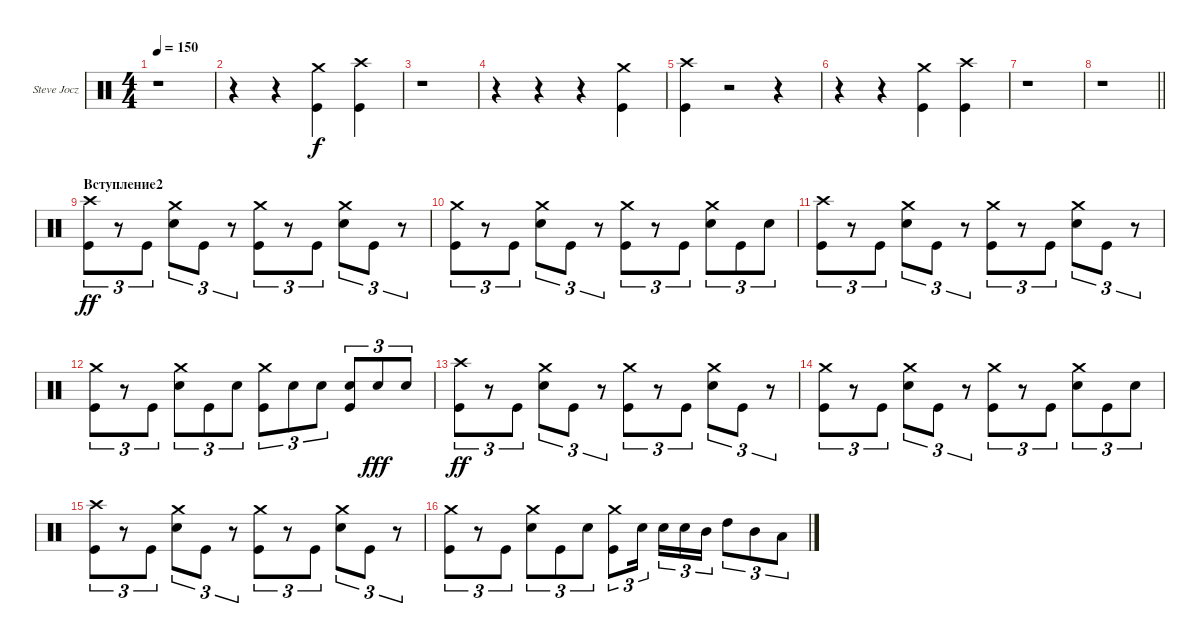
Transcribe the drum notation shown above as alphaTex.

\defaultSystemsLayout 4
\bracketExtendMode groupsimilarinstruments
\firstSystemTrackNameOrientation horizontal
\otherSystemsTrackNameOrientation horizontal
\track ("Steve Jocz " "Steve Jocz") {instrument percussion}
\staff {score}
\articulation defaults
\ts (4 4)
\tempo 150
\clef neutral
\scale
0.333333
\ks c
r.1{dy f} |
\scale
0.333333 r.4 r.4 ("Crash medium (hit)" "Kick (hit)").4 ("Crash high (hit)" "Kick (hit)").4 |
\scale
0.333333 r.1 |
\scale
0.333333 r.4 r.4 r.4 ("Crash medium (hit)" "Kick (hit)").4 |
\scale
0.333333 ("Crash high (hit)" "Kick (hit)").4 r.2 r.4 |
\scale
0.333333 r.4 r.4 ("Crash medium (hit)" "Kick (hit)").4 ("Crash high (hit)" "Kick (hit)").4 |
\scale
0.333333 r.1 |
\scale
0.333333
\barLineRight lightlight
r.1 |
\section ("" "Вступление2")
\scale
0.333333 ("Crash high (hit)" "Kick (hit)").8{tu (3 2) dy ff} r.8{tu (3 2)} "Kick (hit)".8{tu (3 2)} ("Crash medium (hit)" "Snare (hit) 2").8{tu (3 2)} "Kick (hit)".8{tu (3 2)} r.8{tu (3 2)} ("Crash medium (hit)" "Kick (hit)").8{tu (3 2)} r.8{tu (3 2)} "Kick (hit)".8{tu (3 2)} ("Crash medium (hit)" "Snare (hit) 2").8{tu (3 2)} "Kick (hit)".8{tu (3 2)} r.8{tu (3 2)} |
\scale
0.333333 ("Crash medium (hit)" "Kick (hit)").8{tu (3 2)} r.8{tu (3 2)} "Kick (hit)".8{tu (3 2)} ("Crash medium (hit)" "Snare (hit) 2").8{tu (3 2)} "Kick (hit)".8{tu (3 2)} r.8{tu (3 2)} ("Crash medium (hit)" "Kick (hit)").8{tu (3 2)} r.8{tu (3 2)} "Kick (hit)".8{tu (3 2)} ("Crash medium (hit)" "Snare (hit) 2").8{tu (3 2)} "Kick (hit)".8{tu (3 2)} "Snare (hit) 2".8{tu (3 2)} |
\scale
0.333333 ("Crash high (hit)" "Kick (hit)").8{tu (3 2)} r.8{tu (3 2)} "Kick (hit)".8{tu (3 2)} ("Crash medium (hit)" "Snare (hit) 2").8{tu (3 2)} "Kick (hit)".8{tu (3 2)} r.8{tu (3 2)} ("Crash medium (hit)" "Kick (hit)").8{tu (3 2)} r.8{tu (3 2)} "Kick (hit)".8{tu (3 2)} ("Crash medium (hit)" "Snare (hit) 2").8{tu (3 2)} "Kick (hit)".8{tu (3 2)} r.8{tu (3 2)} |
\scale
0.333333 ("Crash medium (hit)" "Kick (hit)").8{tu (3 2)} r.8{tu (3 2)} "Kick (hit)".8{tu (3 2)} ("Crash medium (hit)" "Snare (hit) 2").8{tu (3 2)} "Kick (hit)".8{tu (3 2)} "Snare (hit) 2".8{tu (3 2)} ("Crash medium (hit)" "Kick (hit)").8{tu (3 2)} "Snare (hit) 2".8{tu (3 2)} "Snare (hit) 2".8{tu (3 2)} ("Kick (hit)" "Snare (hit) 2").8{tu (3 2)} "Snare (hit) 2".8{tu (3 2) dy fff} "Snare (hit) 2".8{tu (3 2)} |
\scale
0.333333 ("Crash high (hit)" "Kick (hit)").8{tu (3 2) dy ff} r.8{tu (3 2)} "Kick (hit)".8{tu (3 2)} ("Crash medium (hit)" "Snare (hit) 2").8{tu (3 2)} "Kick (hit)".8{tu (3 2)} r.8{tu (3 2)} ("Crash medium (hit)" "Kick (hit)").8{tu (3 2)} r.8{tu (3 2)} "Kick (hit)".8{tu (3 2)} ("Crash medium (hit)" "Snare (hit) 2").8{tu (3 2)} "Kick (hit)".8{tu (3 2)} r.8{tu (3 2)} |
\scale
0.333333 ("Crash medium (hit)" "Kick (hit)").8{tu (3 2)} r.8{tu (3 2)} "Kick (hit)".8{tu (3 2)} ("Crash medium (hit)" "Snare (hit) 2").8{tu (3 2)} "Kick (hit)".8{tu (3 2)} r.8{tu (3 2)} ("Crash medium (hit)" "Kick (hit)").8{tu (3 2)} r.8{tu (3 2)} "Kick (hit)".8{tu (3 2)} ("Crash medium (hit)" "Snare (hit) 2").8{tu (3 2)} "Kick (hit)".8{tu (3 2)} "Snare (hit) 2".8{tu (3 2)} |
\scale
0.263889 ("Crash high (hit)" "Kick (hit)").8{tu (3 2)} r.8{tu (3 2)} "Kick (hit)".8{tu (3 2)} ("Crash medium (hit)" "Snare (hit) 2").8{tu (3 2)} "Kick (hit)".8{tu (3 2)} r.8{tu (3 2)} ("Crash medium (hit)" "Kick (hit)").8{tu (3 2)} r.8{tu (3 2)} "Kick (hit)".8{tu (3 2)} ("Crash medium (hit)" "Snare (hit) 2").8{tu (3 2)} "Kick (hit)".8{tu (3 2)} r.8{tu (3 2)} |
\scale
0.263889 ("Crash medium (hit)" "Kick (hit)").8{tu (3 2)} r.8{tu (3 2)} "Kick (hit)".8{tu (3 2)} ("Crash medium (hit)" "Snare (hit) 2").8{tu (3 2)} "Kick (hit)".8{tu (3 2)} "Snare (hit) 2".8{tu (3 2)} ("Crash medium (hit)" "Kick (hit)").8{tu (3 2)} "Snare (hit) 2".16{tu (3 2)} "Snare (hit) 2".16{tu (3 2)} "Snare (hit) 2".16{tu (3 2)} "Mid Tom (hit)".16{tu (3 2)} "High Tom (hit)".8{tu (3 2)} "Mid Tom (hit)".8{tu (3 2)} "Low Tom (hit)".8{tu (3 2)}
